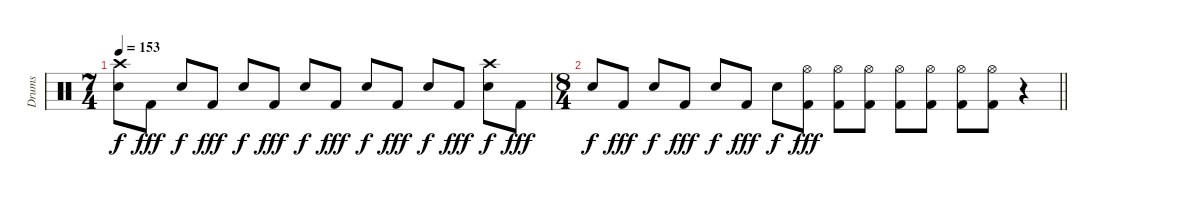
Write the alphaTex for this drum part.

\track ("Drums" "Drums") {instrument percussion}
\staff {score}
\articulation defaults
\ts (7 4)
\tempo 153
\clef neutral
\ks c
("Crash high (hit)" "Electric Snare (hit)").8{dy f} "Kick (hit) 2".8{dy fff} "Electric Snare (hit)".8{dy f} "Kick (hit) 2".8{dy fff} "Electric Snare (hit)".8{dy f} "Kick (hit) 2".8{dy fff} "Electric Snare (hit)".8{dy f} "Kick (hit) 2".8{dy fff} "Electric Snare (hit)".8{dy f} "Kick (hit) 2".8{dy fff} "Electric Snare (hit)".8{dy f} "Kick (hit) 2".8{dy fff} ("Crash high (hit)" "Electric Snare (hit)").8{dy f} "Kick (hit) 2".8{dy fff} |
\ts (8 4)
\barLineRight lightlight "Electric Snare (hit)".8{dy f} "Kick (hit) 2".8{dy fff} "Electric Snare (hit)".8{dy f} "Kick (hit) 2".8{dy fff} "Electric Snare (hit)".8{dy f} "Kick (hit) 2".8{dy fff} "Electric Snare (hit)".8{dy f}
("Hi-Hat (open)" "Kick (hit) 2").8{dy fff} ("Hi-Hat (open)" "Kick (hit) 2").8 ("Hi-Hat (open)" "Kick (hit) 2").8 ("Hi-Hat (open)" "Kick (hit) 2").8 ("Hi-Hat (open)" "Kick (hit) 2").8 ("Hi-Hat (open)" "Kick (hit) 2").8 ("Hi-Hat (open)" "Kick (hit) 2").8 r.4
